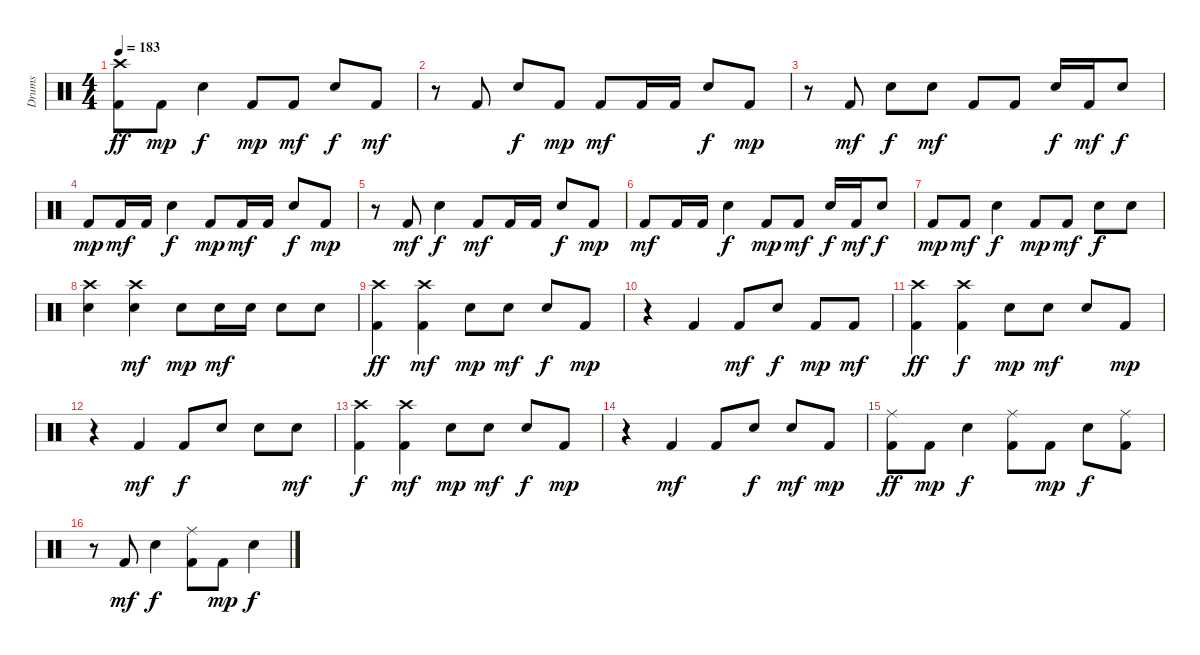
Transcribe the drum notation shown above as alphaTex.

\track ("Drums" "Drums") {instrument percussion}
\staff {score}
\articulation defaults
\ts (4 4)
\tempo 183
\clef neutral
\ks c
("Kick (hit) 2" "Crash high (hit)").8{dy ff} "Kick (hit) 2".8{dy mp} "Snare (hit) 2".4{dy f} "Kick (hit) 2".8{dy mp} "Kick (hit) 2".8{dy mf} "Snare (hit) 2".8{dy f} "Kick (hit) 2".8{dy mf} |
r.8 "Kick (hit) 2".8 "Snare (hit) 2".8{dy f} "Kick (hit) 2".8{dy mp} "Kick (hit) 2".8{dy mf} "Kick (hit) 2".16 "Kick (hit) 2".16 "Snare (hit) 2".8{dy f} "Kick (hit) 2".8{dy mp} |
r.8 "Kick (hit) 2".8{dy mf} "Snare (hit) 2".8{dy f} "Snare (hit) 2".8{dy mf} "Kick (hit) 2".8 "Kick (hit) 2".8 "Snare (hit) 2".16{dy f} "Kick (hit) 2".16{dy mf} "Snare (hit) 2".8{dy f} |
"Kick (hit) 2".8{dy mp} "Kick (hit) 2".16{dy mf} "Kick (hit) 2".16 "Snare (hit) 2".4{dy f} "Kick (hit) 2".8{dy mp} "Kick (hit) 2".16{dy mf} "Kick (hit) 2".16 "Snare (hit) 2".8{dy f} "Kick (hit) 2".8{dy mp} |
r.8 "Kick (hit) 2".8{dy mf} "Snare (hit) 2".4{dy f} "Kick (hit) 2".8{dy mf} "Kick (hit) 2".16 "Kick (hit) 2".16 "Snare (hit) 2".8{dy f} "Kick (hit) 2".8{dy mp} |
"Kick (hit) 2".8{dy mf} "Kick (hit) 2".16 "Kick (hit) 2".16 "Snare (hit) 2".4{dy f} "Kick (hit) 2".8{dy mp} "Kick (hit) 2".8{dy mf} "Snare (hit) 2".16{dy f} "Kick (hit) 2".16{dy mf} "Snare (hit) 2".8{dy f} |
"Kick (hit) 2".8{dy mp} "Kick (hit) 2".8{dy mf} "Snare (hit) 2".4{dy f} "Kick (hit) 2".8{dy mp} "Kick (hit) 2".8{dy mf} "Snare (hit) 2".8{dy f} "Snare (hit) 2".8 |
("Snare (hit) 2" "Crash high (hit)").4 ("Snare (hit) 2" "Crash high (hit)").4{dy mf} "Snare (hit) 2".8{dy mp} "Snare (hit) 2".16{dy mf} "Snare (hit) 2".16 "Snare (hit) 2".8 "Snare (hit) 2".8 |
("Kick (hit) 2" "Crash high (hit)").4{dy ff} ("Kick (hit) 2" "Crash high (hit)").4{dy mf} "Snare (hit) 2".8{dy mp} "Snare (hit) 2".8{dy mf} "Snare (hit) 2".8{dy f} "Kick (hit) 2".8{dy mp} |
r.4 "Kick (hit) 2".4 "Kick (hit) 2".8{dy mf} "Snare (hit) 2".8{dy f} "Kick (hit) 2".8{dy mp} "Kick (hit) 2".8{dy mf} |
("Kick (hit) 2" "Crash high (hit)").4{dy ff} ("Kick (hit) 2" "Crash high (hit)").4{dy f} "Snare (hit) 2".8{dy mp} "Snare (hit) 2".8{dy mf} "Snare (hit) 2".8 "Kick (hit) 2".8{dy mp} |
r.4 "Kick (hit) 2".4{dy mf} "Kick (hit) 2".8{dy f} "Snare (hit) 2".8 "Snare (hit) 2".8 "Snare (hit) 2".8{dy mf} |
("Kick (hit) 2" "Crash high (hit)").4{dy f} ("Kick (hit) 2" "Crash high (hit)").4{dy mf} "Snare (hit) 2".8{dy mp} "Snare (hit) 2".8{dy mf} "Snare (hit) 2".8{dy f} "Kick (hit) 2".8{dy mp} |
r.4 "Kick (hit) 2".4{dy mf} "Kick (hit) 2".8 "Snare (hit) 2".8{dy f} "Snare (hit) 2".8{dy mf} "Kick (hit) 2".8{dy mp} |
("Kick (hit) 2" "Ride (middle)").8{dy ff} "Kick (hit) 2".8{dy mp} "Snare (hit) 2".4{dy f} ("Kick (hit) 2" "Ride (middle)").8 "Kick (hit) 2".8{dy mp} "Snare (hit) 2".8{dy f} ("Kick (hit) 2" "Ride (middle)").8 |
r.8 "Kick (hit) 2".8{dy mf} "Snare (hit) 2".4{dy f} ("Kick (hit) 2" "Ride (middle)").8 "Kick (hit) 2".8{dy mp} "Snare (hit) 2".4{dy f}
